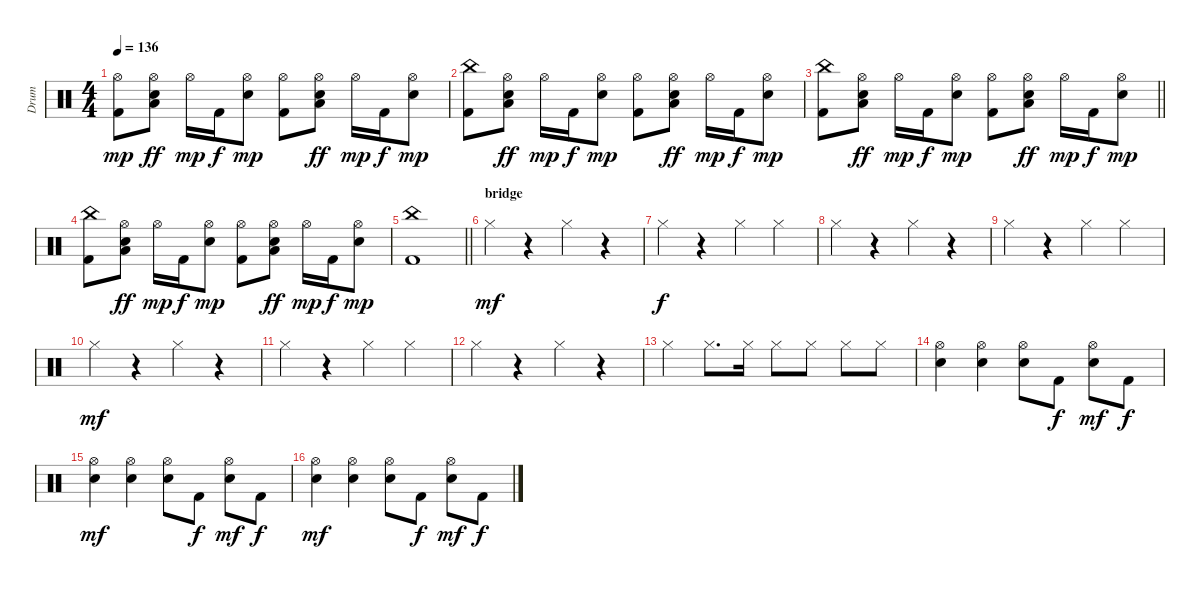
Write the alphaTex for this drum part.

\track ("Drum" "Drum") {instrument percussion}
\staff {score}
\articulation defaults
\ts (4 4)
\tempo 136
\clef neutral
\ks c
("Kick (hit) 2" "Hi-Hat (open)").8{dy mp} ("Electric Snare (hit)" "Hi-Hat (open)" "Low Tom (hit)").8{dy ff} "Hi-Hat (open)".16{dy mp} "Kick (hit) 2".16{dy f} ("Electric Snare (hit)" "Hi-Hat (open)").8{dy mp} ("Kick (hit) 2" "Hi-Hat (open)").8 ("Electric Snare (hit)" "Hi-Hat (open)" "Low Tom (hit)").8{dy ff} "Hi-Hat (open)".16{dy mp} "Kick (hit) 2".16{dy f} ("Electric Snare (hit)" "Hi-Hat (open)").8{dy mp} |
("Kick (hit) 2" "China (hit)").8 ("Electric Snare (hit)" "Hi-Hat (open)" "Low Tom (hit)").8{dy ff} "Hi-Hat (open)".16{dy mp} "Kick (hit) 2".16{dy f} ("Electric Snare (hit)" "Hi-Hat (open)").8{dy mp} ("Kick (hit) 2" "Hi-Hat (open)").8 ("Electric Snare (hit)" "Hi-Hat (open)" "Low Tom (hit)").8{dy ff} "Hi-Hat (open)".16{dy mp} "Kick (hit) 2".16{dy f} ("Electric Snare (hit)" "Hi-Hat (open)").8{dy mp} |
\barLineRight lightlight
("Kick (hit) 2" "China (hit)").8 ("Electric Snare (hit)" "Hi-Hat (open)" "Low Tom (hit)").8{dy ff} "Hi-Hat (open)".16{dy mp} "Kick (hit) 2".16{dy f} ("Electric Snare (hit)" "Hi-Hat (open)").8{dy mp} ("Kick (hit) 2" "Hi-Hat (open)").8 ("Electric Snare (hit)" "Hi-Hat (open)" "Low Tom (hit)").8{dy ff} "Hi-Hat (open)".16{dy mp} "Kick (hit) 2".16{dy f} ("Electric Snare (hit)" "Hi-Hat (open)").8{dy mp} |
("Kick (hit) 2" "China (hit)").8 ("Electric Snare (hit)" "Hi-Hat (open)" "Low Tom (hit)").8{dy ff} "Hi-Hat (open)".16{dy mp} "Kick (hit) 2".16{dy f} ("Electric Snare (hit)" "Hi-Hat (open)").8{dy mp} ("Kick (hit) 2" "Hi-Hat (open)").8 ("Electric Snare (hit)" "Hi-Hat (open)" "Low Tom (hit)").8{dy ff} "Hi-Hat (open)".16{dy mp} "Kick (hit) 2".16{dy f} ("Electric Snare (hit)" "Hi-Hat (open)").8{dy mp} |
\barLineRight lightlight
("Kick (hit) 2" "China (hit)").1 |
\section ("" "bridge")
"Hi-Hat (closed)".4{dy mf} r.4 "Hi-Hat (closed)".4 r.4 |
"Hi-Hat (closed)".4{dy f} r.4 "Hi-Hat (closed)".4 "Hi-Hat (closed)".4 |
"Hi-Hat (closed)".4 r.4 "Hi-Hat (closed)".4 r.4 |
"Hi-Hat (closed)".4 r.4 "Hi-Hat (closed)".4 "Hi-Hat (closed)".4 |
"Hi-Hat (closed)".4{dy mf} r.4 "Hi-Hat (closed)".4 r.4 |
"Hi-Hat (closed)".4 r.4 "Hi-Hat (closed)".4 "Hi-Hat (closed)".4 |
"Hi-Hat (closed)".4 r.4 "Hi-Hat (closed)".4 r.4 |
"Hi-Hat (closed)".4 "Hi-Hat (closed)".8{d} "Hi-Hat (closed)".16 "Hi-Hat (closed)".8 "Hi-Hat (closed)".8 "Hi-Hat (closed)".8 "Hi-Hat (closed)".8 |
("Electric Snare (hit)" "Hi-Hat (open)").4 ("Electric Snare (hit)" "Hi-Hat (open)").4 ("Electric Snare (hit)" "Hi-Hat (open)").8 "Kick (hit) 2".8{dy f} ("Electric Snare (hit)" "Hi-Hat (open)").8{dy mf} "Kick (hit) 2".8{dy f} |
("Electric Snare (hit)" "Hi-Hat (open)").4{dy mf} ("Electric Snare (hit)" "Hi-Hat (open)").4 ("Electric Snare (hit)" "Hi-Hat (open)").8 "Kick (hit) 2".8{dy f} ("Electric Snare (hit)" "Hi-Hat (open)").8{dy mf} "Kick (hit) 2".8{dy f} |
("Electric Snare (hit)" "Hi-Hat (open)").4{dy mf} ("Electric Snare (hit)" "Hi-Hat (open)").4 ("Electric Snare (hit)" "Hi-Hat (open)").8 "Kick (hit) 2".8{dy f} ("Electric Snare (hit)" "Hi-Hat (open)").8{dy mf} "Kick (hit) 2".8{dy f}
